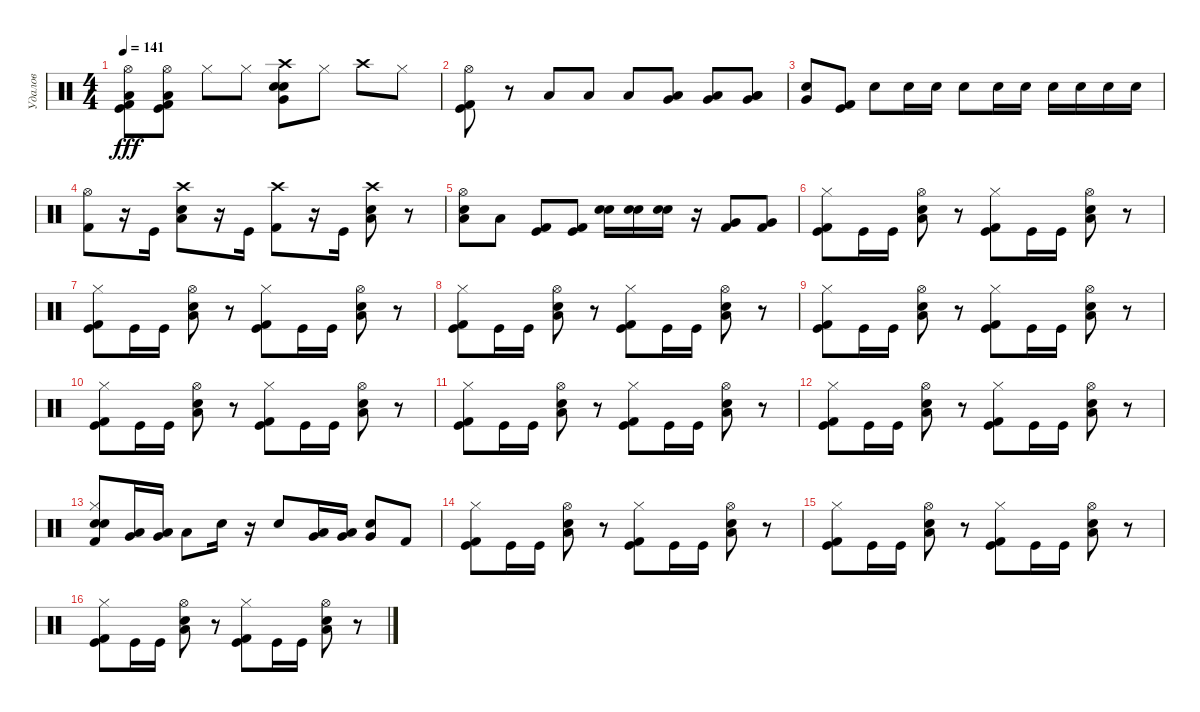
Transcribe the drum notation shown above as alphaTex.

\track ("Удалов" "Удалов") {instrument percussion}
\staff {score}
\articulation defaults
\ts (4 4)
\tempo 141
\clef neutral
\ks c
("Hi-Hat (open)" "Low Floor Tom (hit)" "Kick (hit)" "Kick (hit) 2").8{dy fff} ("Hi-Hat (open)" "Low Floor Tom (hit)" "Kick (hit)" "Kick (hit) 2").8 "Hi-Hat (closed)".8 "Hi-Hat (closed)".8 ("Crash high (hit)" "Very Low Tom (hit)" "Snare (hit) 2" "Electric Snare (hit)").8 "Hi-Hat (closed)".8 "Crash high (hit)".8 "Hi-Hat (closed)".8 |
("Kick (hit)" "Hi-Hat (open)" "Kick (hit) 2").8 r.8 "Low Floor Tom (hit)".8 "Low Floor Tom (hit)".8 "Low Floor Tom (hit)".8 ("Low Floor Tom (hit)" "Very Low Tom (hit)").8 ("Low Floor Tom (hit)" "Very Low Tom (hit)").8 ("Low Tom (hit)" "Very Low Tom (hit)" "Low Floor Tom (hit)").8 |
("Electric Snare (hit)" "Very Low Tom (hit)").8 ("Kick (hit)" "Kick (hit) 2").8 "Snare (hit) 2".8 "Snare (hit) 2".16 "Snare (hit) 2".16 "Snare (hit) 2".8 "Snare (hit) 2".16 "Snare (hit) 2".16 "Snare (hit) 2".16 "Snare (hit) 2".16 "Snare (hit) 2".16 "Snare (hit) 2".16 |
("Kick (hit) 2" "Hi-Hat (open)").8 r.16 "Kick (hit)".16 ("Low Tom (hit)" "Snare (hit) 2" "Crash high (hit)").8 r.16 "Kick (hit)".16 ("Kick (hit) 2" "Crash high (hit)").8 r.16 "Kick (hit)".16 ("Low Tom (hit)" "Snare (hit) 2" "Crash high (hit)").8 r.8 |
("Hi-Hat (open)" "Snare (hit) 2" "Low Tom (hit)").8 "Low Floor Tom (hit)".8 ("Kick (hit)" "Kick (hit) 2").8 ("Kick (hit)" "Kick (hit) 2").8 ("Electric Snare (hit)" "Snare (hit) 2").16 ("Electric Snare (hit)" "Snare (hit) 2").16 ("Snare (hit) 2" "Electric Snare (hit)").16 r.16 ("Kick (hit) 2" "Very Low Tom (hit)").8 ("Kick (hit) 2" "Very Low Tom (hit)").8 |
("Hi-Hat (closed)" "Kick (hit)" "Kick (hit) 2").8 "Kick (hit)".16 "Kick (hit)".16 ("Hi-Hat (open)" "Low Tom (hit)" "Snare (hit) 2").8 r.8 ("Hi-Hat (closed)" "Kick (hit)" "Kick (hit) 2").8 "Kick (hit)".16 "Kick (hit)".16 ("Hi-Hat (open)" "Low Tom (hit)" "Snare (hit) 2").8 r.8 |
("Hi-Hat (closed)" "Kick (hit)" "Kick (hit) 2").8 "Kick (hit)".16 "Kick (hit)".16 ("Hi-Hat (open)" "Low Tom (hit)" "Snare (hit) 2").8 r.8 ("Hi-Hat (closed)" "Kick (hit)" "Kick (hit) 2").8 "Kick (hit)".16 "Kick (hit)".16 ("Hi-Hat (open)" "Low Tom (hit)" "Snare (hit) 2").8 r.8 |
("Hi-Hat (closed)" "Kick (hit)" "Kick (hit) 2").8 "Kick (hit)".16 "Kick (hit)".16 ("Hi-Hat (open)" "Low Tom (hit)" "Snare (hit) 2").8 r.8 ("Hi-Hat (closed)" "Kick (hit)" "Kick (hit) 2").8 "Kick (hit)".16 "Kick (hit)".16 ("Hi-Hat (open)" "Low Tom (hit)" "Snare (hit) 2").8 r.8 |
("Hi-Hat (closed)" "Kick (hit)" "Kick (hit) 2").8 "Kick (hit)".16 "Kick (hit)".16 ("Hi-Hat (open)" "Low Tom (hit)" "Snare (hit) 2").8 r.8 ("Hi-Hat (closed)" "Kick (hit)" "Kick (hit) 2").8 "Kick (hit)".16 "Kick (hit)".16 ("Hi-Hat (open)" "Low Tom (hit)" "Snare (hit) 2").8 r.8 |
("Hi-Hat (closed)" "Kick (hit)" "Kick (hit) 2").8 "Kick (hit)".16 "Kick (hit)".16 ("Hi-Hat (open)" "Low Tom (hit)" "Snare (hit) 2").8 r.8 ("Hi-Hat (closed)" "Kick (hit)" "Kick (hit) 2").8 "Kick (hit)".16 "Kick (hit)".16 ("Hi-Hat (open)" "Low Tom (hit)" "Snare (hit) 2").8 r.8 |
("Hi-Hat (closed)" "Kick (hit)" "Kick (hit) 2").8 "Kick (hit)".16 "Kick (hit)".16 ("Hi-Hat (open)" "Low Tom (hit)" "Snare (hit) 2").8 r.8 ("Hi-Hat (closed)" "Kick (hit)" "Kick (hit) 2").8 "Kick (hit)".16 "Kick (hit)".16 ("Hi-Hat (open)" "Low Tom (hit)" "Snare (hit) 2").8 r.8 |
("Hi-Hat (closed)" "Kick (hit)" "Kick (hit) 2").8 "Kick (hit)".16 "Kick (hit)".16 ("Hi-Hat (open)" "Low Tom (hit)" "Snare (hit) 2").8 r.8 ("Hi-Hat (closed)" "Kick (hit)" "Kick (hit) 2").8 "Kick (hit)".16 "Kick (hit)".16 ("Hi-Hat (open)" "Low Tom (hit)" "Snare (hit) 2").8 r.8 |
("Hi-Hat (closed)" "Electric Snare (hit)" "Snare (hit) 2" "Kick (hit) 2").8 ("Low Tom (hit)" "Very Low Tom (hit)").16 ("Very Low Tom (hit)" "Low Floor Tom (hit)").16 "Low Tom (hit)".8 "Snare (hit) 2".16 r.16 "Snare (hit) 2".8 ("Low Tom (hit)" "Very Low Tom (hit)").16 ("Very Low Tom (hit)" "Low Floor Tom (hit)").16 ("Snare (hit) 2" "Very Low Tom (hit)").8 "Kick (hit) 2".8 |
("Hi-Hat (closed)" "Kick (hit)" "Kick (hit) 2").8 "Kick (hit)".16 "Kick (hit)".16 ("Hi-Hat (open)" "Low Tom (hit)" "Snare (hit) 2").8 r.8 ("Hi-Hat (closed)" "Kick (hit)" "Kick (hit) 2").8 "Kick (hit)".16 "Kick (hit)".16 ("Hi-Hat (open)" "Low Tom (hit)" "Snare (hit) 2").8 r.8 |
("Hi-Hat (closed)" "Kick (hit)" "Kick (hit) 2").8 "Kick (hit)".16 "Kick (hit)".16 ("Hi-Hat (open)" "Low Tom (hit)" "Snare (hit) 2").8 r.8 ("Hi-Hat (closed)" "Kick (hit)" "Kick (hit) 2").8 "Kick (hit)".16 "Kick (hit)".16 ("Hi-Hat (open)" "Low Tom (hit)" "Snare (hit) 2").8 r.8 |
("Hi-Hat (closed)" "Kick (hit)" "Kick (hit) 2").8 "Kick (hit)".16 "Kick (hit)".16 ("Hi-Hat (open)" "Low Tom (hit)" "Snare (hit) 2").8 r.8 ("Hi-Hat (closed)" "Kick (hit)" "Kick (hit) 2").8 "Kick (hit)".16 "Kick (hit)".16 ("Hi-Hat (open)" "Low Tom (hit)" "Snare (hit) 2").8 r.8
